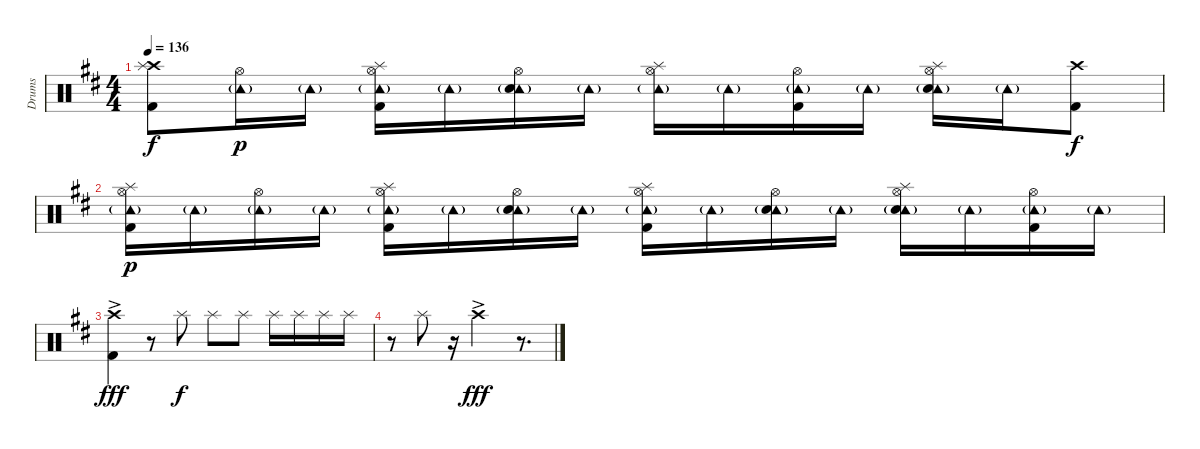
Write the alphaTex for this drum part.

\track ("Drums" "Drums") {instrument percussion}
\staff {score}
\articulation defaults
\ts (4 4)
\tempo 136
\clef neutral
\ks d
("Crash high (hit)" "Splash (hit)" "Kick (hit) 2").8{dy f} ("Hi-Hat (open)" "Tambourine (hit)"{g}).16{dy p} "Tambourine (hit)"{g}.16 ("Hi-Hat (open)" "Splash (hit)" "Tambourine (hit)"{g} "Kick (hit) 2").16 "Tambourine (hit)"{g}.16 ("Hi-Hat (open)" "Tambourine (hit)"{g} "Snare (hit) 2").16 "Tambourine (hit)"{g}.16 ("Hi-Hat (open)" "Splash (hit)" "Tambourine (hit)"{g}).16 "Tambourine (hit)"{g}.16 ("Hi-Hat (open)" "Tambourine (hit)"{g} "Kick (hit) 2").16 "Tambourine (hit)"{g}.16 ("Hi-Hat (open)" "Splash (hit)" "Tambourine (hit)"{g} "Snare (hit) 2").16 "Tambourine (hit)"{g}.16 ("Crash high (hit)" "Kick (hit) 2").8{dy f} |
("Hi-Hat (open)" "Splash (hit)" "Tambourine (hit)"{g} "Kick (hit) 2").16{dy p} "Tambourine (hit)"{g}.16 ("Hi-Hat (open)" "Tambourine (hit)"{g}).16 "Tambourine (hit)"{g}.16 ("Hi-Hat (open)" "Splash (hit)" "Tambourine (hit)"{g} "Kick (hit) 2").16 "Tambourine (hit)"{g}.16 ("Hi-Hat (open)" "Tambourine (hit)"{g} "Snare (hit) 2").16 "Tambourine (hit)"{g}.16 ("Hi-Hat (open)" "Splash (hit)" "Tambourine (hit)"{g} "Kick (hit) 2").16 "Tambourine (hit)"{g}.16 ("Hi-Hat (open)" "Tambourine (hit)"{g} "Snare (hit) 2").16 "Tambourine (hit)"{g}.16 ("Hi-Hat (open)" "Splash (hit)" "Tambourine (hit)"{g} "Snare (hit) 2").16 "Tambourine (hit)"{g}.16 ("Hi-Hat (open)" "Tambourine (hit)"{g} "Kick (hit) 2").16 "Tambourine (hit)"{g}.16 |
("Crash high (hit)" "Kick (hit) 2"{ac}).4{dy fff} r.8 "Splash (hit)".8{dy f} "Splash (hit)".8 "Splash (hit)".8 "Splash (hit)".16 "Splash (hit)".16 "Splash (hit)".16 "Splash (hit)".16 |
r.8 "Splash (hit)".8 r.16 "Crash high (hit)"{ac}.2{dy fff} r.8{d}
